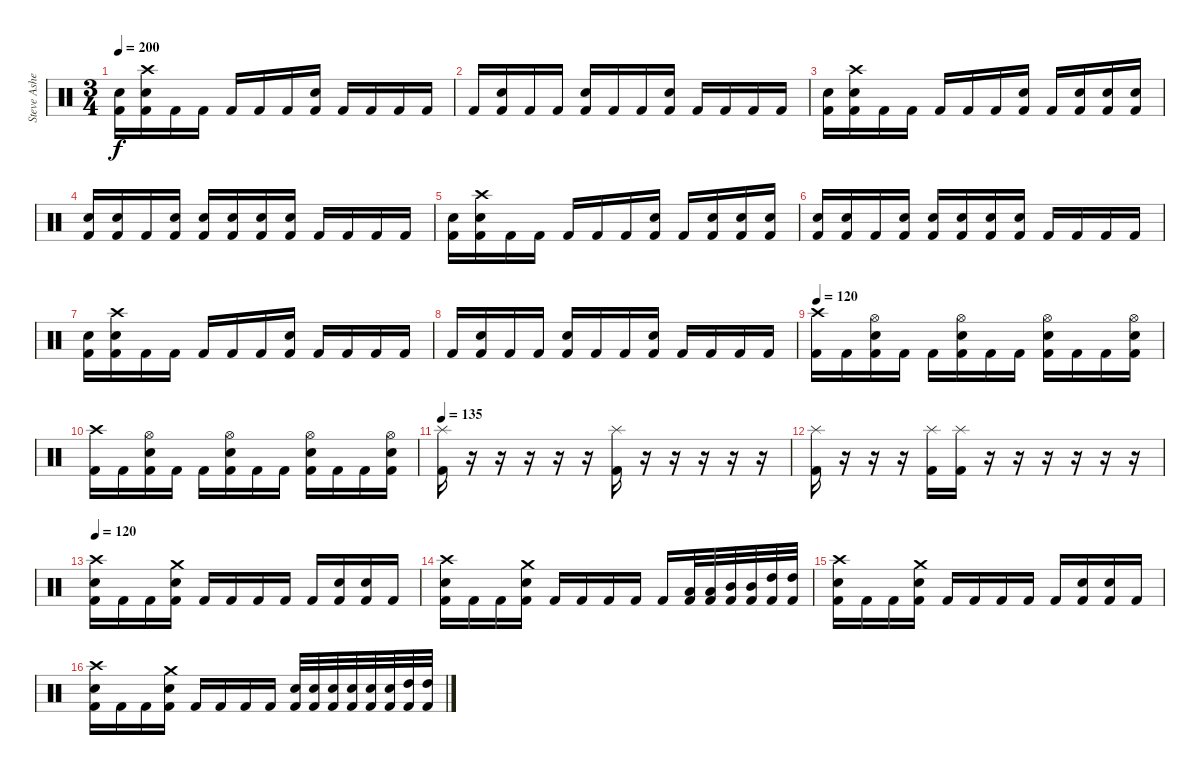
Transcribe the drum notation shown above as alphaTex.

\track ("Steve Asheim" "Steve Ashe") {instrument percussion}
\staff {score}
\articulation defaults
\ts (3 4)
\tempo 200
\clef neutral
\ks c
("Electric Snare (hit)" "Kick (hit) 2").16{dy f} ("Crash high (hit)" "Electric Snare (hit)" "Kick (hit) 2").16 "Kick (hit) 2".16 "Kick (hit) 2".16 "Kick (hit) 2".16 "Kick (hit) 2".16 "Kick (hit) 2".16 ("Electric Snare (hit)" "Kick (hit) 2").16 "Kick (hit) 2".16 "Kick (hit) 2".16 "Kick (hit) 2".16 "Kick (hit) 2".16 |
"Kick (hit) 2".16 ("Electric Snare (hit)" "Kick (hit) 2").16 "Kick (hit) 2".16 "Kick (hit) 2".16 ("Electric Snare (hit)" "Kick (hit) 2").16 "Kick (hit) 2".16 "Kick (hit) 2".16 ("Electric Snare (hit)" "Kick (hit) 2").16 "Kick (hit) 2".16 "Kick (hit) 2".16 "Kick (hit) 2".16 "Kick (hit) 2".16 |
("Electric Snare (hit)" "Kick (hit) 2").16 ("Crash high (hit)" "Electric Snare (hit)" "Kick (hit) 2").16 "Kick (hit) 2".16 "Kick (hit) 2".16 "Kick (hit) 2".16 "Kick (hit) 2".16 "Kick (hit) 2".16 ("Electric Snare (hit)" "Kick (hit) 2").16 "Kick (hit) 2".16 ("Snare (hit) 2" "Kick (hit) 2").16 ("Snare (hit) 2" "Kick (hit) 2").16 ("Snare (hit) 2" "Kick (hit) 2").16 |
("Snare (hit) 2" "Kick (hit) 2").16 ("Electric Snare (hit)" "Kick (hit) 2").16 "Kick (hit) 2".16 ("Snare (hit) 2" "Kick (hit) 2").16 ("Snare (hit) 2" "Kick (hit) 2").16 ("Snare (hit) 2" "Kick (hit) 2").16 ("Snare (hit) 2" "Kick (hit) 2").16 ("Electric Snare (hit)" "Kick (hit) 2").16 "Kick (hit) 2".16 "Kick (hit) 2".16 "Kick (hit) 2".16 "Kick (hit) 2".16 |
("Electric Snare (hit)" "Kick (hit) 2").16 ("Crash high (hit)" "Electric Snare (hit)" "Kick (hit) 2").16 "Kick (hit) 2".16 "Kick (hit) 2".16 "Kick (hit) 2".16 "Kick (hit) 2".16 "Kick (hit) 2".16 ("Electric Snare (hit)" "Kick (hit) 2").16 "Kick (hit) 2".16 ("Snare (hit) 2" "Kick (hit) 2").16 ("Snare (hit) 2" "Kick (hit) 2").16 ("Snare (hit) 2" "Kick (hit) 2").16 |
("Snare (hit) 2" "Kick (hit) 2").16 ("Electric Snare (hit)" "Kick (hit) 2").16 "Kick (hit) 2".16 ("Snare (hit) 2" "Kick (hit) 2").16 ("Snare (hit) 2" "Kick (hit) 2").16 ("Snare (hit) 2" "Kick (hit) 2").16 ("Snare (hit) 2" "Kick (hit) 2").16 ("Electric Snare (hit)" "Kick (hit) 2").16 "Kick (hit) 2".16 "Kick (hit) 2".16 "Kick (hit) 2".16 "Kick (hit) 2".16 |
("Electric Snare (hit)" "Kick (hit) 2").16 ("Crash high (hit)" "Electric Snare (hit)" "Kick (hit) 2").16 "Kick (hit) 2".16 "Kick (hit) 2".16 "Kick (hit) 2".16 "Kick (hit) 2".16 "Kick (hit) 2".16 ("Electric Snare (hit)" "Kick (hit) 2").16 "Kick (hit) 2".16 "Kick (hit) 2".16 "Kick (hit) 2".16 "Kick (hit) 2".16 |
"Kick (hit) 2".16 ("Electric Snare (hit)" "Kick (hit) 2").16 "Kick (hit) 2".16 "Kick (hit) 2".16 ("Electric Snare (hit)" "Kick (hit) 2").16 "Kick (hit) 2".16 "Kick (hit) 2".16 ("Electric Snare (hit)" "Kick (hit) 2").16 "Kick (hit) 2".16 "Kick (hit) 2".16 "Kick (hit) 2".16 "Kick (hit) 2".16 |
\tempo 120
("Crash high (hit)" "Kick (hit) 2").16 "Kick (hit) 2".16 ("Hi-Hat (open)" "Electric Snare (hit)" "Kick (hit) 2").16 "Kick (hit) 2".16 "Kick (hit) 2".16 ("Hi-Hat (open)" "Electric Snare (hit)" "Kick (hit) 2").16 "Kick (hit) 2".16 "Kick (hit) 2".16 ("Hi-Hat (open)" "Electric Snare (hit)" "Kick (hit) 2").16 "Kick (hit) 2".16 "Kick (hit) 2".16 ("Hi-Hat (open)" "Electric Snare (hit)" "Kick (hit) 2").16 |
("Crash high (hit)" "Kick (hit) 2").16 "Kick (hit) 2".16 ("Hi-Hat (open)" "Electric Snare (hit)" "Kick (hit) 2").16 "Kick (hit) 2".16 "Kick (hit) 2".16 ("Hi-Hat (open)" "Electric Snare (hit)" "Kick (hit) 2").16 "Kick (hit) 2".16 "Kick (hit) 2".16 ("Hi-Hat (open)" "Electric Snare (hit)" "Kick (hit) 2").16 "Kick (hit) 2".16 "Kick (hit) 2".16 ("Hi-Hat (open)" "Electric Snare (hit)" "Kick (hit) 2").16 |
\tempo 135
("Splash (hit)" "Kick (hit) 2").16 r.16 r.16 r.16 r.16 r.16 ("Splash (hit)" "Kick (hit) 2").16 r.16 r.16 r.16 r.16 r.16 |
("Splash (hit)" "Kick (hit) 2").16 r.16 r.16 r.16 ("Splash (hit)" "Kick (hit) 2").16 ("Splash (hit)" "Kick (hit) 2").16 r.16 r.16 r.16 r.16 r.16 r.16 |
\tempo 120
("Crash high (hit)" "Electric Snare (hit)" "Kick (hit) 2").16 "Kick (hit) 2".16 "Kick (hit) 2".16 ("Crash medium (hit)" "Electric Snare (hit)" "Kick (hit) 2").16 "Kick (hit) 2".16 "Kick (hit) 2".16 "Kick (hit) 2".16 "Kick (hit) 2".16 "Kick (hit) 2".16 ("Electric Snare (hit)" "Kick (hit) 2").16 ("Electric Snare (hit)" "Kick (hit) 2").16 "Kick (hit) 2".16 |
("Crash high (hit)" "Electric Snare (hit)" "Kick (hit) 2").16 "Kick (hit) 2".16 "Kick (hit) 2".16 ("Crash medium (hit)" "Electric Snare (hit)" "Kick (hit) 2").16 "Kick (hit) 2".16 "Kick (hit) 2".16 "Kick (hit) 2".16 "Kick (hit) 2".16 "Kick (hit) 2".16 ("Low Floor Tom (hit)" "Kick (hit) 2").32 ("Low Tom (hit)" "Kick (hit) 2").32 ("Mid Tom (hit)" "Kick (hit) 2").32 ("Mid Tom (hit)" "Kick (hit) 2").32 ("High Tom (hit)" "Kick (hit) 2").32 ("High Tom (hit)" "Kick (hit) 2").32 |
("Crash high (hit)" "Electric Snare (hit)" "Kick (hit) 2").16 "Kick (hit) 2".16 "Kick (hit) 2".16 ("Crash medium (hit)" "Electric Snare (hit)" "Kick (hit) 2").16 "Kick (hit) 2".16 "Kick (hit) 2".16 "Kick (hit) 2".16 "Kick (hit) 2".16 "Kick (hit) 2".16 ("Electric Snare (hit)" "Kick (hit) 2").16 ("Electric Snare (hit)" "Kick (hit) 2").16 "Kick (hit) 2".16 |
("Crash high (hit)" "Electric Snare (hit)" "Kick (hit) 2").16 "Kick (hit) 2".16 "Kick (hit) 2".16 ("Crash medium (hit)" "Electric Snare (hit)" "Kick (hit) 2").16 "Kick (hit) 2".16 "Kick (hit) 2".16 "Kick (hit) 2".16 "Kick (hit) 2".16 ("Electric Snare (hit)" "Kick (hit) 2").32 ("Electric Snare (hit)" "Kick (hit) 2").32 ("Electric Snare (hit)" "Kick (hit) 2").32 ("Electric Snare (hit)" "Kick (hit) 2").32 ("Electric Snare (hit)" "Kick (hit) 2").32 ("Electric Snare (hit)" "Kick (hit) 2").32 ("High Tom (hit)" "Kick (hit) 2").32 ("High Tom (hit)" "Kick (hit) 2").32
